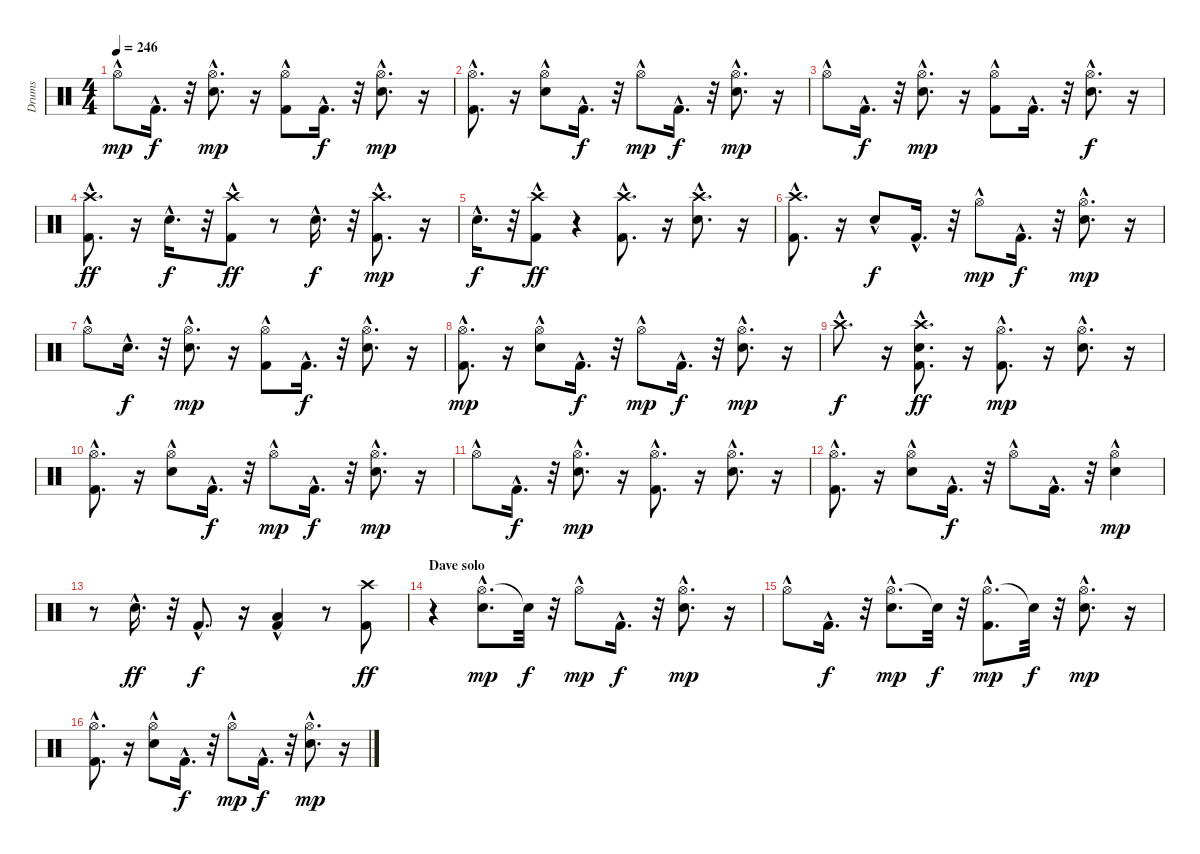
\track ("Drums" "Drums") {instrument percussion}
\staff {score}
\articulation defaults
\ts (4 4)
\tempo 246
\clef neutral
\ks c "Hi-Hat (open)"{hac}.8{dy mp} "Kick (hit) 2"{hac}.16{d dy f}
r.32 ("Hi-Hat (open)"{hac} "Electric Snare (hit)"{hac}).8{d dy mp} r.16 ("Hi-Hat (open)"{hac} "Kick (hit) 2"{hac}).8 "Kick (hit) 2"{hac}.16{d dy f} r.32 ("Hi-Hat (open)"{hac} "Electric Snare (hit)"{hac}).8{d dy mp} r.16 |
("Hi-Hat (open)"{hac} "Kick (hit) 2"{hac}).8{d} r.16 ("Hi-Hat (open)"{hac} "Electric Snare (hit)"{hac}).8 "Kick (hit) 2"{hac}.16{d dy f} r.32 "Hi-Hat (open)"{hac}.8{dy mp} "Kick (hit) 2"{hac}.16{d dy f} r.32 ("Hi-Hat (open)"{hac} "Electric Snare (hit)"{hac}).8{d dy mp} r.16 |
"Hi-Hat (open)"{hac}.8 "Kick (hit) 2"{hac}.16{d dy f} r.32 ("Hi-Hat (open)"{hac} "Electric Snare (hit)"{hac}).8{d dy mp} r.16 ("Hi-Hat (open)"{hac} "Kick (hit) 2"{hac}).8 "Kick (hit) 2"{hac}.16{d} r.32 ("Hi-Hat (open)"{hac} "Electric Snare (hit)"{hac}).8{d dy f} r.16 |
("Crash high (hit)"{hac} "Kick (hit) 2"{hac}).8{d dy ff} r.16 "Electric Snare (hit)"{hac}.16{d dy f} r.32 ("Crash high (hit)" "Kick (hit) 2"{hac}).8{dy ff} r.8 "Electric Snare (hit)"{hac}.16{d dy f} r.32 ("Crash high (hit)"{hac} "Kick (hit) 2"{hac}).8{d dy mp} r.16 |
"Electric Snare (hit)"{hac}.16{d dy f} r.32 ("Crash high (hit)" "Kick (hit) 2"{hac}).8{dy ff} r.4 ("Crash high (hit)"{hac} "Kick (hit) 2"{hac}).8{d} r.16 ("Crash high (hit)"{hac} "Electric Snare (hit)"{hac}).8{d} r.16 |
("Crash high (hit)"{hac} "Kick (hit) 2"{hac}).8{d} r.16 "Electric Snare (hit)"{hac}.8{dy f} "Kick (hit) 2"{hac}.16{d} r.32 "Hi-Hat (open)"{hac}.8{dy mp} "Kick (hit) 2"{hac}.16{d dy f} r.32 ("Hi-Hat (open)"{hac} "Electric Snare (hit)"{hac}).8{d dy mp} r.16 |
"Hi-Hat (open)"{hac}.8 "Snare (hit)"{hac}.16{d dy f} r.32 ("Hi-Hat (open)"{hac} "Electric Snare (hit)"{hac}).8{d dy mp} r.16 ("Hi-Hat (open)"{hac} "Kick (hit) 2"{hac}).8 "Kick (hit) 2"{hac}.16{d dy f} r.32 ("Hi-Hat (open)"{hac} "Electric Snare (hit)"{hac}).8{d} r.16 |
("Hi-Hat (open)"{hac} "Kick (hit) 2"{hac}).8{d dy mp} r.16 ("Hi-Hat (open)"{hac} "Electric Snare (hit)"{hac}).8 "Kick (hit) 2"{hac}.16{d dy f} r.32 "Hi-Hat (open)"{hac}.8{dy mp} "Kick (hit) 2"{hac}.16{d dy f} r.32 ("Hi-Hat (open)"{hac} "Electric Snare (hit)"{hac}).8{d dy mp} r.16 |
"Crash high (hit)"{hac}.8{d dy f} r.16 ("Crash high (hit)"{hac} "Electric Snare (hit)"{hac} "Kick (hit) 2"{hac}).8{d dy ff} r.16 ("Hi-Hat (open)"{hac} "Kick (hit) 2"{hac}).8{d dy mp} r.16 ("Hi-Hat (open)"{hac} "Electric Snare (hit)"{hac}).8{d} r.16 |
("Hi-Hat (open)"{hac} "Kick (hit) 2"{hac}).8{d} r.16 ("Hi-Hat (open)"{hac} "Electric Snare (hit)"{hac}).8 "Kick (hit) 2"{hac}.16{d dy f} r.32 "Hi-Hat (open)"{hac}.8{dy mp} "Kick (hit) 2"{hac}.16{d dy f} r.32 ("Hi-Hat (open)"{hac} "Electric Snare (hit)"{hac}).8{d dy mp} r.16 |
"Hi-Hat (open)"{hac}.8 "Kick (hit) 2"{hac}.16{d dy f} r.32 ("Hi-Hat (open)"{hac} "Electric Snare (hit)"{hac}).8{d dy mp} r.16 ("Hi-Hat (open)"{hac} "Kick (hit) 2"{hac}).8{d} r.16 ("Electric Snare (hit)"{hac} "Hi-Hat (open)"{hac}).8{d} r.16 |
("Kick (hit) 2"{hac} "Hi-Hat (open)"{hac}).8{d} r.16 ("Hi-Hat (open)"{hac} "Electric Snare (hit)"{hac}).8 "Kick (hit) 2"{hac}.16{d dy f} r.32 "Hi-Hat (open)"{hac}.8 "Kick (hit) 2"{hac}.16{d} r.32 ("Electric Snare (hit)"{hac} "Hi-Hat (open)").4{dy mp} |
r.8 "Electric Snare (hit)"{hac}.16{d dy ff} r.32 "Kick (hit) 2"{hac}.8{d dy f} r.16 ("Kick (hit) 2"{hac} "Low Tom (hit)").4 r.8 ("Kick (hit) 2" "Crash high (hit)").8{dy ff} |
\section ("" "Dave solo")
r.4 ("Hi-Hat (open)"{hac} "Electric Snare (hit)"{hac}).8{d dy mp} "Snare (hit)"{t}.32{dy f} r.32 "Hi-Hat (open)"{hac}.8{dy mp} "Kick (hit) 2"{hac}.16{d dy f} r.32 ("Hi-Hat (open)"{hac} "Electric Snare (hit)"{hac}).8{d dy mp} r.16 |
"Hi-Hat (open)"{hac}.8 "Kick (hit) 2"{hac}.16{d dy f} r.32 ("Hi-Hat (open)"{hac} "Electric Snare (hit)"{hac}).8{d dy mp} "Snare (hit)"{t}.32{dy f} r.32 ("Hi-Hat (open)"{hac} "Kick (hit) 2"{hac}).8{d dy mp} "Snare (hit)"{t}.32{dy f} r.32 ("Hi-Hat (open)"{hac} "Electric Snare (hit)"{hac}).8{d dy mp} r.16 |
("Hi-Hat (open)"{hac} "Kick (hit) 2"{hac}).8{d} r.16 ("Hi-Hat (open)"{hac} "Electric Snare (hit)"{hac}).8 "Kick (hit) 2"{hac}.16{d dy f} r.32 "Hi-Hat (open)"{hac}.8{dy mp} "Kick (hit) 2"{hac}.16{d dy f} r.32 ("Hi-Hat (open)"{hac} "Electric Snare (hit)"{hac}).8{d dy mp} r.16
